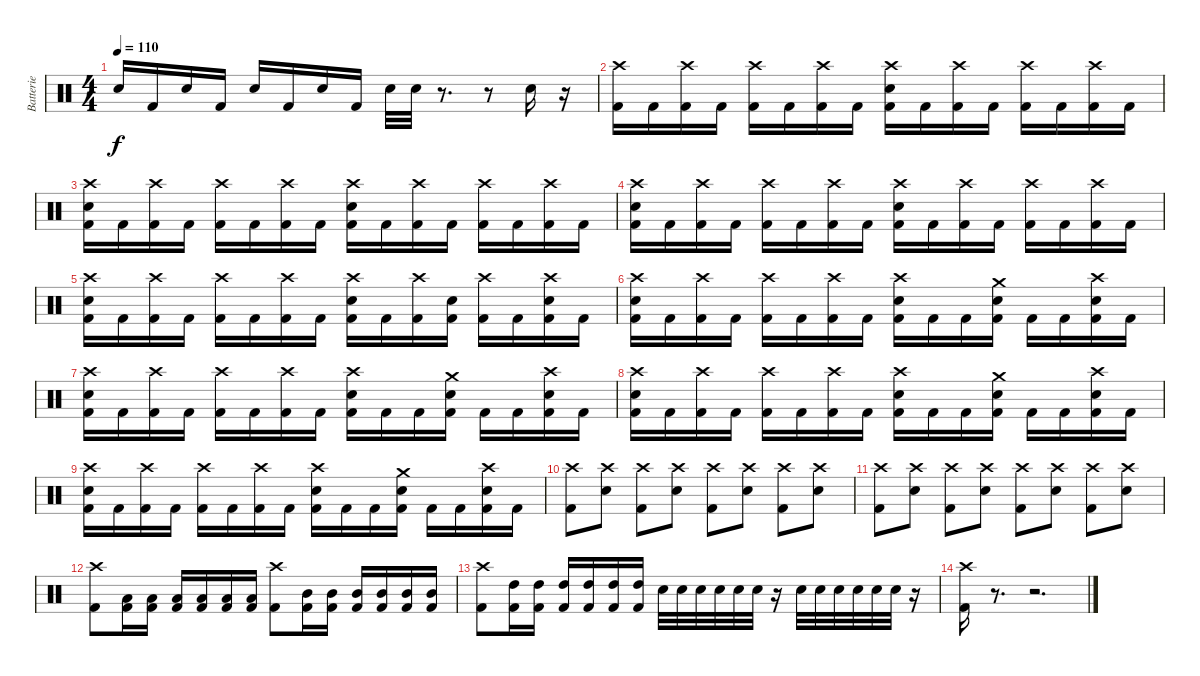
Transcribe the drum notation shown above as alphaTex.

\track ("Batterie" "Batterie") {instrument percussion}
\staff {score}
\articulation defaults
\ts (4 4)
\tempo 110
\clef neutral
\ks c "Electric Snare (hit)".16{dy f} "Kick (hit) 2".16 "Electric Snare (hit)".16 "Kick (hit) 2".16 "Electric Snare (hit)".16 "Kick (hit) 2".16 "Electric Snare (hit)".16 "Kick (hit) 2".16 "Electric Snare (hit)".32 "Electric Snare (hit)".32
r.8{d} r.8 "Electric Snare (hit)".16 r.16 |
\section ("" "")
("Crash high (hit)" "Kick (hit) 2").16 "Kick (hit) 2".16 ("Crash high (hit)" "Kick (hit) 2").16 "Kick (hit) 2".16 ("Crash high (hit)" "Kick (hit) 2").16 "Kick (hit) 2".16 ("Crash high (hit)" "Kick (hit) 2").16 "Kick (hit) 2".16 ("Crash high (hit)" "Electric Snare (hit)" "Kick (hit) 2").16 "Kick (hit) 2".16 ("Crash high (hit)" "Kick (hit) 2").16 "Kick (hit) 2".16 ("Crash high (hit)" "Kick (hit) 2").16 "Kick (hit) 2".16 ("Crash high (hit)" "Kick (hit) 2").16 "Kick (hit) 2".16 |
("Crash high (hit)" "Electric Snare (hit)" "Kick (hit) 2").16 "Kick (hit) 2".16 ("Crash high (hit)" "Kick (hit) 2").16 "Kick (hit) 2".16 ("Crash high (hit)" "Kick (hit) 2").16 "Kick (hit) 2".16 ("Crash high (hit)" "Kick (hit) 2").16 "Kick (hit) 2".16 ("Crash high (hit)" "Electric Snare (hit)" "Kick (hit) 2").16 "Kick (hit) 2".16 ("Crash high (hit)" "Kick (hit) 2").16 "Kick (hit) 2".16 ("Crash high (hit)" "Kick (hit) 2").16 "Kick (hit) 2".16 ("Crash high (hit)" "Kick (hit) 2").16 "Kick (hit) 2".16 |
("Crash high (hit)" "Electric Snare (hit)" "Kick (hit) 2").16 "Kick (hit) 2".16 ("Crash high (hit)" "Kick (hit) 2").16 "Kick (hit) 2".16 ("Crash high (hit)" "Kick (hit) 2").16 "Kick (hit) 2".16 ("Crash high (hit)" "Kick (hit) 2").16 "Kick (hit) 2".16 ("Crash high (hit)" "Electric Snare (hit)" "Kick (hit) 2").16 "Kick (hit) 2".16 ("Crash high (hit)" "Kick (hit) 2").16 "Kick (hit) 2".16 ("Crash high (hit)" "Kick (hit) 2").16 "Kick (hit) 2".16 ("Crash high (hit)" "Kick (hit) 2").16 "Kick (hit) 2".16 |
("Crash high (hit)" "Electric Snare (hit)" "Kick (hit) 2").16 "Kick (hit) 2".16 ("Crash high (hit)" "Kick (hit) 2").16 "Kick (hit) 2".16 ("Crash high (hit)" "Kick (hit) 2").16 "Kick (hit) 2".16 ("Crash high (hit)" "Kick (hit) 2").16 "Kick (hit) 2".16 ("Crash high (hit)" "Electric Snare (hit)" "Kick (hit) 2").16 "Kick (hit) 2".16 ("Crash high (hit)" "Kick (hit) 2").16 ("Electric Snare (hit)" "Kick (hit) 2").16 ("Crash high (hit)" "Kick (hit) 2").16 "Kick (hit) 2".16 ("Crash high (hit)" "Electric Snare (hit)" "Kick (hit) 2").16 "Kick (hit) 2".16 |
("Crash high (hit)" "Electric Snare (hit)" "Kick (hit) 2").16 "Kick (hit) 2".16 ("Crash high (hit)" "Kick (hit) 2").16 "Kick (hit) 2".16 ("Crash high (hit)" "Kick (hit) 2").16 "Kick (hit) 2".16 ("Crash high (hit)" "Kick (hit) 2").16 "Kick (hit) 2".16 ("Crash high (hit)" "Electric Snare (hit)" "Kick (hit) 2").16 "Kick (hit) 2".16 "Kick (hit) 2".16 ("Crash medium (hit)" "Electric Snare (hit)" "Kick (hit) 2").16 "Kick (hit) 2".16 "Kick (hit) 2".16 ("Crash high (hit)" "Electric Snare (hit)" "Kick (hit) 2").16 "Kick (hit) 2".16 |
("Crash high (hit)" "Electric Snare (hit)" "Kick (hit) 2").16 "Kick (hit) 2".16 ("Crash high (hit)" "Kick (hit) 2").16 "Kick (hit) 2".16 ("Crash high (hit)" "Kick (hit) 2").16 "Kick (hit) 2".16 ("Crash high (hit)" "Kick (hit) 2").16 "Kick (hit) 2".16 ("Crash high (hit)" "Electric Snare (hit)" "Kick (hit) 2").16 "Kick (hit) 2".16 "Kick (hit) 2".16 ("Crash medium (hit)" "Electric Snare (hit)" "Kick (hit) 2").16 "Kick (hit) 2".16 "Kick (hit) 2".16 ("Crash high (hit)" "Electric Snare (hit)" "Kick (hit) 2").16 "Kick (hit) 2".16 |
("Crash high (hit)" "Electric Snare (hit)" "Kick (hit) 2").16 "Kick (hit) 2".16 ("Crash high (hit)" "Kick (hit) 2").16 "Kick (hit) 2".16 ("Crash high (hit)" "Kick (hit) 2").16 "Kick (hit) 2".16 ("Crash high (hit)" "Kick (hit) 2").16 "Kick (hit) 2".16 ("Crash high (hit)" "Electric Snare (hit)" "Kick (hit) 2").16 "Kick (hit) 2".16 "Kick (hit) 2".16 ("Crash medium (hit)" "Electric Snare (hit)" "Kick (hit) 2").16 "Kick (hit) 2".16 "Kick (hit) 2".16 ("Crash high (hit)" "Electric Snare (hit)" "Kick (hit) 2").16 "Kick (hit) 2".16 |
("Crash high (hit)" "Electric Snare (hit)" "Kick (hit) 2").16 "Kick (hit) 2".16 ("Crash high (hit)" "Kick (hit) 2").16 "Kick (hit) 2".16 ("Crash high (hit)" "Kick (hit) 2").16 "Kick (hit) 2".16 ("Crash high (hit)" "Kick (hit) 2").16 "Kick (hit) 2".16 ("Crash high (hit)" "Electric Snare (hit)" "Kick (hit) 2").16 "Kick (hit) 2".16 "Kick (hit) 2".16 ("Crash medium (hit)" "Electric Snare (hit)" "Kick (hit) 2").16 "Kick (hit) 2".16 "Kick (hit) 2".16 ("Crash high (hit)" "Electric Snare (hit)" "Kick (hit) 2").16 "Kick (hit) 2".16 |
\section ("" "")
("Crash high (hit)" "Kick (hit) 2").8 ("Crash high (hit)" "Electric Snare (hit)").8 ("Crash high (hit)" "Kick (hit) 2").8 ("Crash high (hit)" "Electric Snare (hit)").8 ("Crash high (hit)" "Kick (hit) 2").8 ("Crash high (hit)" "Electric Snare (hit)").8 ("Crash high (hit)" "Kick (hit) 2").8 ("Crash high (hit)" "Electric Snare (hit)").8 |
("Crash high (hit)" "Kick (hit) 2").8 ("Crash high (hit)" "Electric Snare (hit)").8 ("Crash high (hit)" "Kick (hit) 2").8 ("Crash high (hit)" "Electric Snare (hit)").8 ("Crash high (hit)" "Kick (hit) 2").8 ("Crash high (hit)" "Electric Snare (hit)").8 ("Crash high (hit)" "Kick (hit) 2").8 ("Crash high (hit)" "Electric Snare (hit)").8 |
("Crash high (hit)" "Kick (hit) 2").8 ("Low Tom (hit)" "Kick (hit) 2").16 ("Low Tom (hit)" "Kick (hit) 2").16 ("Low Tom (hit)" "Kick (hit) 2").16 ("Low Tom (hit)" "Kick (hit) 2").16 ("Low Tom (hit)" "Kick (hit) 2").16 ("Low Tom (hit)" "Kick (hit) 2").16 ("Crash high (hit)" "Kick (hit) 2").8 ("Mid Tom (hit)" "Kick (hit) 2").16 ("Mid Tom (hit)" "Kick (hit) 2").16 ("Mid Tom (hit)" "Kick (hit) 2").16 ("Mid Tom (hit)" "Kick (hit) 2").16 ("Mid Tom (hit)" "Kick (hit) 2").16 ("Mid Tom (hit)" "Kick (hit) 2").16 |
("Crash high (hit)" "Kick (hit) 2").8 ("High Tom (hit)" "Kick (hit) 2").16 ("High Tom (hit)" "Kick (hit) 2").16 ("High Tom (hit)" "Kick (hit) 2").16 ("High Tom (hit)" "Kick (hit) 2").16 ("High Tom (hit)" "Kick (hit) 2").16 ("High Tom (hit)" "Kick (hit) 2").16 "Electric Snare (hit)".32 "Electric Snare (hit)".32 "Electric Snare (hit)".32 "Electric Snare (hit)".32 "Electric Snare (hit)".32 "Electric Snare (hit)".32 r.16 "Electric Snare (hit)".32 "Electric Snare (hit)".32 "Electric Snare (hit)".32 "Electric Snare (hit)".32 "Electric Snare (hit)".32 "Electric Snare (hit)".32 r.16 |
("Crash high (hit)" "Kick (hit) 2").16 r.8{d} r.2{d}
